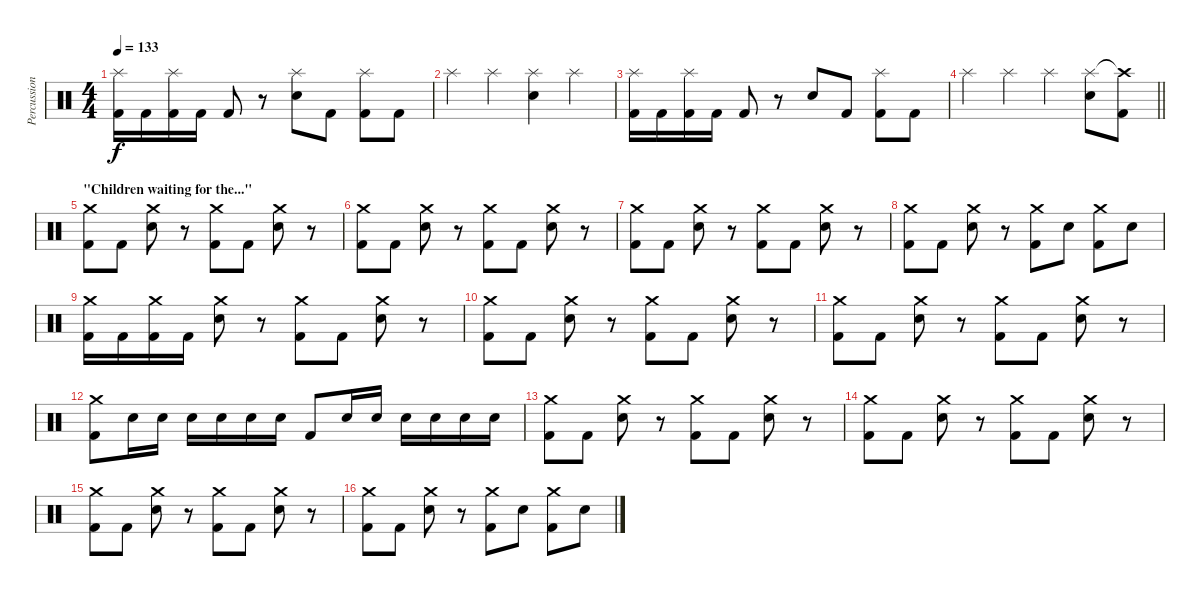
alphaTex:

\track ("Percussion" "Percussion") {instrument percussion}
\staff {score}
\articulation defaults
\ts (4 4)
\tempo 133
\clef neutral
\ks c
("Splash (hit)" "Kick (hit) 2").16{dy f} "Kick (hit) 2".16 ("Splash (hit)" "Kick (hit) 2").16 "Kick (hit) 2".16 "Kick (hit) 2".8 r.8 ("Splash (hit)" "Snare (hit) 2").8 "Kick (hit) 2".8 ("Splash (hit)" "Kick (hit) 2").8 "Kick (hit) 2".8 |
"Splash (hit)".4 "Splash (hit)".4 ("Splash (hit)" "Snare (hit) 2").4 "Splash (hit)".4 |
("Splash (hit)" "Kick (hit) 2").16 "Kick (hit) 2".16 ("Splash (hit)" "Kick (hit) 2").16 "Kick (hit) 2".16 "Kick (hit) 2".8 r.8 "Snare (hit) 2".8 "Kick (hit) 2".8 ("Splash (hit)" "Kick (hit) 2").8 "Kick (hit) 2".8 |
\barLineRight lightlight "Splash (hit)".4 "Splash (hit)".4 "Splash (hit)".4
("Splash (hit)" "Snare (hit) 2").8 ("Crash high (hit)"{t} "Kick (hit) 2").8 |
\section ("" "\"Children waiting for the...\"")
("Crash medium (hit)" "Kick (hit) 2").8 "Kick (hit) 2".8 ("Crash medium (hit)" "Snare (hit) 2").8 r.8 ("Crash medium (hit)" "Kick (hit) 2").8 "Kick (hit) 2".8 ("Crash medium (hit)" "Snare (hit) 2").8 r.8 |
("Crash medium (hit)" "Kick (hit) 2").8 "Kick (hit) 2".8 ("Crash medium (hit)" "Snare (hit) 2").8 r.8 ("Crash medium (hit)" "Kick (hit) 2").8 "Kick (hit) 2".8 ("Crash medium (hit)" "Snare (hit) 2").8 r.8 |
("Crash medium (hit)" "Kick (hit) 2").8 "Kick (hit) 2".8 ("Crash medium (hit)" "Snare (hit) 2").8 r.8 ("Crash medium (hit)" "Kick (hit) 2").8 "Kick (hit) 2".8 ("Crash medium (hit)" "Snare (hit) 2").8 r.8 |
("Crash medium (hit)" "Kick (hit) 2").8 "Kick (hit) 2".8 ("Crash medium (hit)" "Snare (hit) 2").8 r.8 ("Crash medium (hit)" "Kick (hit) 2").8 "Snare (hit) 2".8 ("Crash medium (hit)" "Kick (hit) 2").8 "Snare (hit) 2".8 |
("Crash medium (hit)" "Kick (hit) 2").16 "Kick (hit) 2".16 ("Crash medium (hit)" "Kick (hit) 2").16 "Kick (hit) 2".16 ("Crash medium (hit)" "Snare (hit) 2").8 r.8 ("Crash medium (hit)" "Kick (hit) 2").8 "Kick (hit) 2".8 ("Crash medium (hit)" "Snare (hit) 2").8 r.8 |
("Crash medium (hit)" "Kick (hit) 2").8 "Kick (hit) 2".8 ("Crash medium (hit)" "Snare (hit) 2").8 r.8 ("Crash medium (hit)" "Kick (hit) 2").8 "Kick (hit) 2".8 ("Crash medium (hit)" "Snare (hit) 2").8 r.8 |
("Crash medium (hit)" "Kick (hit) 2").8 "Kick (hit) 2".8 ("Crash medium (hit)" "Snare (hit) 2").8 r.8 ("Crash medium (hit)" "Kick (hit) 2").8 "Kick (hit) 2".8 ("Crash medium (hit)" "Snare (hit) 2").8 r.8 |
("Crash medium (hit)" "Kick (hit) 2").8 "Snare (hit) 2".16 "Snare (hit) 2".16 "Snare (hit) 2".16 "Snare (hit) 2".16 "Snare (hit) 2".16 "Snare (hit) 2".16 "Kick (hit) 2".8 "Snare (hit) 2".16 "Snare (hit) 2".16 "Snare (hit) 2".16 "Snare (hit) 2".16 "Snare (hit) 2".16 "Snare (hit) 2".16 |
("Crash medium (hit)" "Kick (hit) 2").8 "Kick (hit) 2".8 ("Crash medium (hit)" "Snare (hit) 2").8 r.8 ("Crash medium (hit)" "Kick (hit) 2").8 "Kick (hit) 2".8 ("Crash medium (hit)" "Snare (hit) 2").8 r.8 |
("Crash medium (hit)" "Kick (hit) 2").8 "Kick (hit) 2".8 ("Crash medium (hit)" "Snare (hit) 2").8 r.8 ("Crash medium (hit)" "Kick (hit) 2").8 "Kick (hit) 2".8 ("Crash medium (hit)" "Snare (hit) 2").8 r.8 |
("Crash medium (hit)" "Kick (hit) 2").8 "Kick (hit) 2".8 ("Crash medium (hit)" "Snare (hit) 2").8 r.8 ("Crash medium (hit)" "Kick (hit) 2").8 "Kick (hit) 2".8 ("Crash medium (hit)" "Snare (hit) 2").8 r.8 |
("Crash medium (hit)" "Kick (hit) 2").8 "Kick (hit) 2".8 ("Crash medium (hit)" "Snare (hit) 2").8 r.8 ("Crash medium (hit)" "Kick (hit) 2").8 "Snare (hit) 2".8 ("Crash medium (hit)" "Kick (hit) 2").8 "Snare (hit) 2".8
